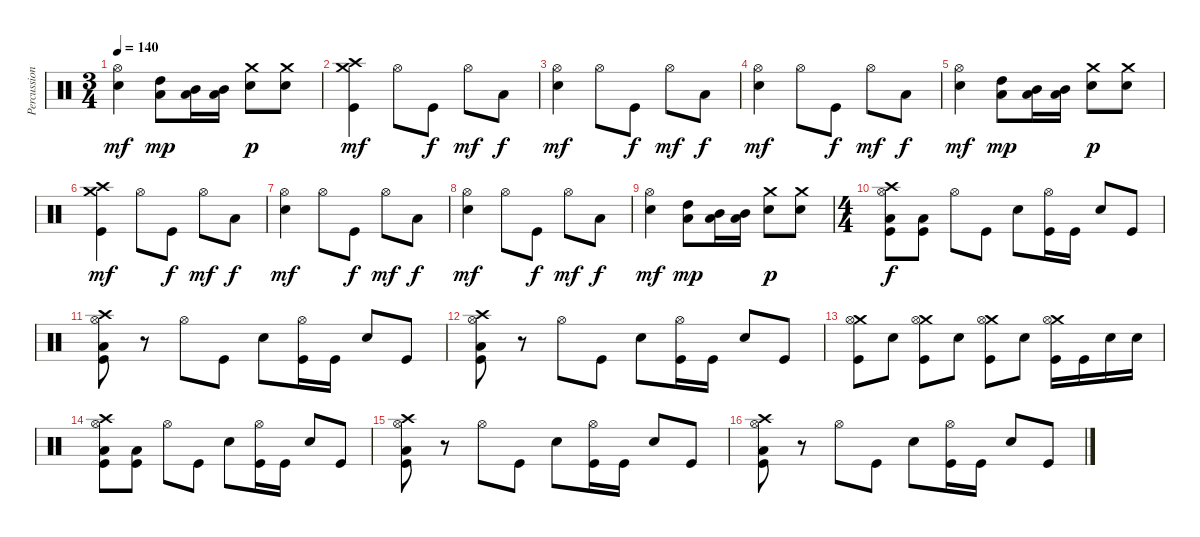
\track ("Percussion" "Percussion") {instrument percussion}
\staff {score}
\articulation defaults
\ts (3 4)
\tempo 140
\clef neutral
\ks c
("Electric Snare (hit)" "Hi-Hat (open)").4{dy mf} ("Low Tom (hit)" "High Tom (hit)").8{dy mp} ("Low Tom (hit)" "Mid Tom (hit)").16 ("Low Tom (hit)" "Mid Tom (hit)").16 ("Electric Snare (hit)" "Crash medium (hit)").8{dy p} ("Electric Snare (hit)" "Crash medium (hit)").8 |
("Kick (hit)" "Crash high (hit)" "Crash medium (hit)").4{dy mf} "Hi-Hat (open)".8 "Kick (hit)".8{dy f} "Hi-Hat (open)".8{dy mf} "Low Floor Tom (hit)".8{dy f} |
("Electric Snare (hit)" "Hi-Hat (open)").4{dy mf} "Hi-Hat (open)".8 "Kick (hit)".8{dy f} "Hi-Hat (open)".8{dy mf} "Low Floor Tom (hit)".8{dy f} |
("Electric Snare (hit)" "Hi-Hat (open)").4{dy mf} "Hi-Hat (open)".8 "Kick (hit)".8{dy f} "Hi-Hat (open)".8{dy mf} "Low Floor Tom (hit)".8{dy f} |
("Electric Snare (hit)" "Hi-Hat (open)").4{dy mf} ("Low Tom (hit)" "High Tom (hit)").8{dy mp} ("Low Tom (hit)" "Mid Tom (hit)").16 ("Low Tom (hit)" "Mid Tom (hit)").16 ("Electric Snare (hit)" "Crash medium (hit)").8{dy p} ("Electric Snare (hit)" "Crash medium (hit)").8 |
("Kick (hit)" "Crash high (hit)" "Crash medium (hit)").4{dy mf} "Hi-Hat (open)".8 "Kick (hit)".8{dy f} "Hi-Hat (open)".8{dy mf} "Low Floor Tom (hit)".8{dy f} |
("Electric Snare (hit)" "Hi-Hat (open)").4{dy mf} "Hi-Hat (open)".8 "Kick (hit)".8{dy f} "Hi-Hat (open)".8{dy mf} "Low Floor Tom (hit)".8{dy f} |
("Electric Snare (hit)" "Hi-Hat (open)").4{dy mf} "Hi-Hat (open)".8 "Kick (hit)".8{dy f} "Hi-Hat (open)".8{dy mf} "Low Floor Tom (hit)".8{dy f} |
("Electric Snare (hit)" "Hi-Hat (open)").4{dy mf} ("Low Tom (hit)" "High Tom (hit)").8{dy mp} ("Low Tom (hit)" "Mid Tom (hit)").16 ("Low Tom (hit)" "Mid Tom (hit)").16 ("Electric Snare (hit)" "Crash medium (hit)").8{dy p} ("Electric Snare (hit)" "Crash medium (hit)").8 |
\ts (4 4)
("Crash high (hit)" "Hi-Hat (open)" "Low Floor Tom (hit)" "Kick (hit)").8{dy f} ("Low Floor Tom (hit)" "Kick (hit)").8 "Hi-Hat (open)".8 "Kick (hit)".8 "Electric Snare (hit)".8 ("Hi-Hat (open)" "Kick (hit)").16 "Kick (hit)".16 "Electric Snare (hit)".8 "Kick (hit)".8 |
("Crash high (hit)" "Hi-Hat (open)" "Low Floor Tom (hit)" "Kick (hit)").8 r.8 "Hi-Hat (open)".8 "Kick (hit)".8 "Electric Snare (hit)".8 ("Hi-Hat (open)" "Kick (hit)").16 "Kick (hit)".16 "Electric Snare (hit)".8 "Kick (hit)".8 |
("Crash high (hit)" "Hi-Hat (open)" "Low Floor Tom (hit)" "Kick (hit)").8 r.8 "Hi-Hat (open)".8 "Kick (hit)".8 "Electric Snare (hit)".8 ("Hi-Hat (open)" "Kick (hit)").16 "Kick (hit)".16 "Electric Snare (hit)".8 "Kick (hit)".8 |
("Crash medium (hit)" "Hi-Hat (open)" "Kick (hit)").8 "Electric Snare (hit)".8 ("Crash medium (hit)" "Hi-Hat (open)" "Kick (hit)").8 "Electric Snare (hit)".8 ("Crash medium (hit)" "Hi-Hat (open)" "Kick (hit)").8 "Electric Snare (hit)".8 ("Crash medium (hit)" "Hi-Hat (open)" "Kick (hit)").16 "Kick (hit)".16 "Electric Snare (hit)".16 "Electric Snare (hit)".16 |
("Crash high (hit)" "Hi-Hat (open)" "Low Floor Tom (hit)" "Kick (hit)").8 ("Low Floor Tom (hit)" "Kick (hit)").8 "Hi-Hat (open)".8 "Kick (hit)".8 "Electric Snare (hit)".8 ("Hi-Hat (open)" "Kick (hit)").16 "Kick (hit)".16 "Electric Snare (hit)".8 "Kick (hit)".8 |
("Crash high (hit)" "Hi-Hat (open)" "Low Floor Tom (hit)" "Kick (hit)").8 r.8 "Hi-Hat (open)".8 "Kick (hit)".8 "Electric Snare (hit)".8 ("Hi-Hat (open)" "Kick (hit)").16 "Kick (hit)".16 "Electric Snare (hit)".8 "Kick (hit)".8 |
("Crash high (hit)" "Hi-Hat (open)" "Low Floor Tom (hit)" "Kick (hit)").8 r.8 "Hi-Hat (open)".8 "Kick (hit)".8 "Electric Snare (hit)".8 ("Hi-Hat (open)" "Kick (hit)").16 "Kick (hit)".16 "Electric Snare (hit)".8 "Kick (hit)".8
